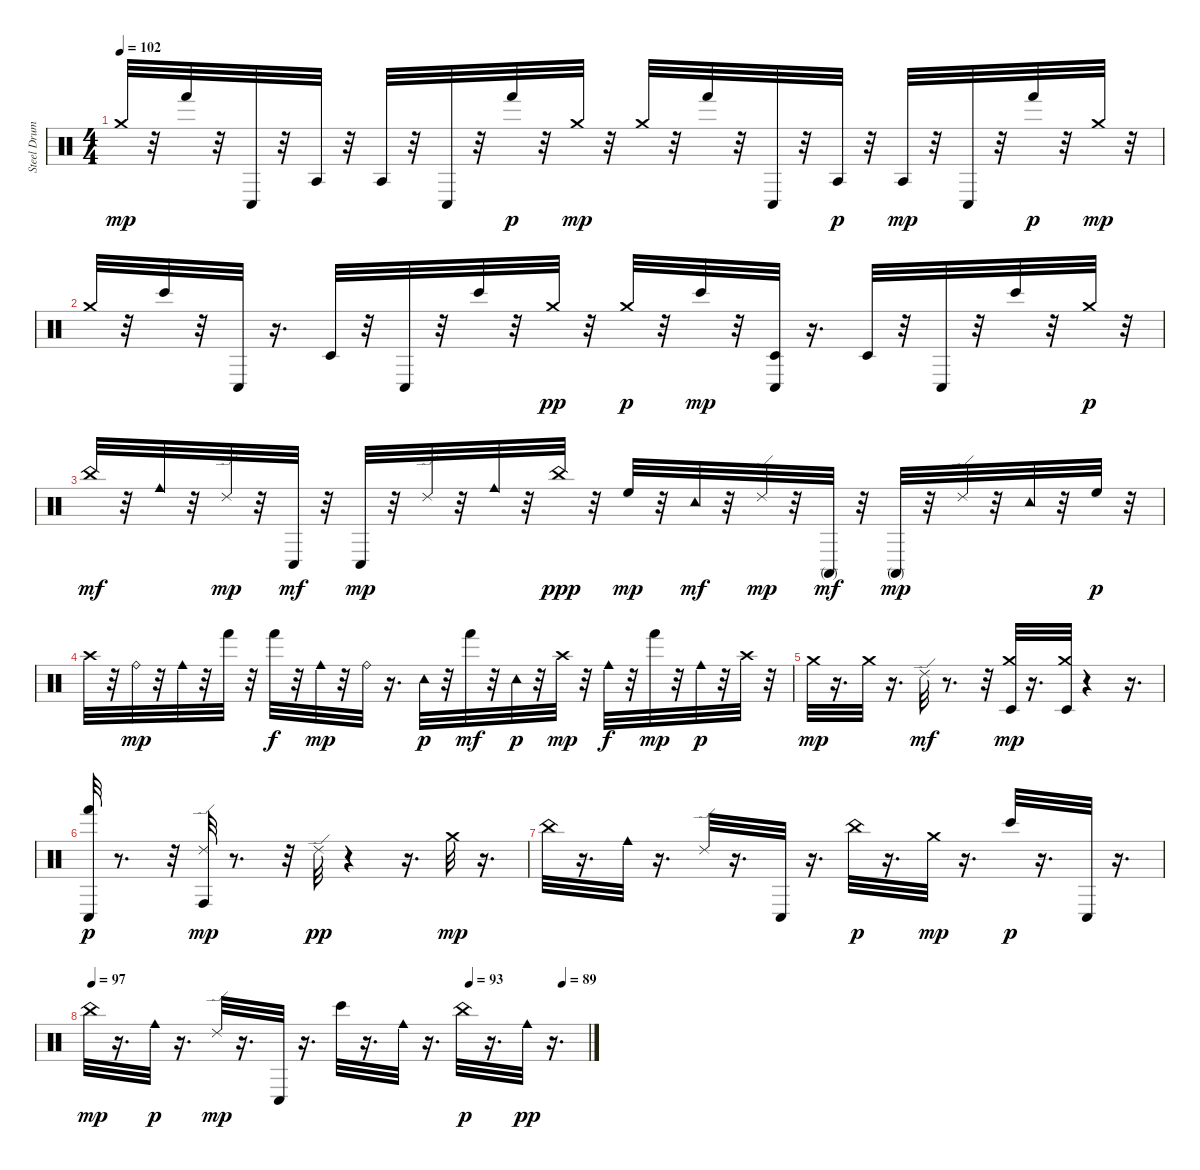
\track ("Steel Drums" "Steel Drum") {instrument percussion}
\staff {score}
\articulation defaults
\ts (4 4)
\tempo 102
\clef neutral
\ks c "Crash medium (hit)".32{dy mp}
r.32 "Hand (hit)".32 r.32 "Conga low (hit)".32 r.32 "Agogo tow (hit)".32 r.32 "Agogo tow (hit)".32 r.32 "Conga low (hit)".32 r.32 "Hand (hit)".32{dy p} r.32 "Crash medium (hit)".32{dy mp} r.32 "Crash medium (hit)".32 r.32 "Hand (hit)".32 r.32 "Conga low (hit)".32 r.32 "Agogo tow (hit)".32{dy p} r.32 "Agogo tow (hit)".32{dy mp} r.32 "Conga low (hit)".32 r.32 "Hand (hit)".32{dy p} r.32 "Crash medium (hit)".32{dy mp} r.32 |
"Crash medium (hit)".32 r.32 "Bongo High (hit)".32 r.32 "Conga low (hit)".32 r.16{d} "Timbale low (hit)".32 r.32 "Conga low (hit)".32 r.32 "Bongo High (hit)".32 r.32 "Crash medium (hit)".32{dy pp} r.32 "Crash medium (hit)".32{dy p} r.32 "Bongo High (hit)".32{dy mp} r.32 ("Timbale low (hit)" "Conga low (hit)").32 r.16{d} "Timbale low (hit)".32 r.32 "Conga low (hit)".32 r.32 "Bongo High (hit)".32 r.32 "Crash medium (hit)".32{dy p} r.32 |
"China (hit)".32{dy mf} r.32 "Cowbell medium (hit)".32 r.32 "Ride (edge) 2".32{dy mp} r.32 "Conga low (hit)".32{dy mf} r.32 "Conga low (hit)".32{dy mp} r.32 "Ride (edge) 2".32 r.32 "Cowbell medium (hit)".32 r.32 "China (hit)".32{dy ppp} r.32 "High Floor Tom (hit)".32{dy mp} r.32 "Tambourine (hit)".32{dy mf} r.32 "Ride (edge) 2".32{dy mp} r.32 "Conga high (mute)".32{dy mf} r.32 "Conga high (mute)".32{dy mp} r.32 "Ride (edge) 2".32 r.32 "Tambourine (hit)".32 r.32 "High Floor Tom (hit)".32{dy p} r.32 |
"Crash high (hit)".32 r.32 "Ride (bell)".32{dy mp} r.32 "Cowbell medium (hit)".32 r.32 "Hand (hit)".32 r.32 "Hand (hit)".32{dy f} r.32 "Cowbell medium (hit)".32{dy mp} r.32 "Ride (bell)".32 r.16{d} "Tambourine (hit)".32{dy p} r.32 "Hand (hit)".32{dy mf} r.32 "Tambourine (hit)".32{dy p} r.32 "Crash high (hit)".32{dy mp} r.32 "Cowbell medium (hit)".32{dy f} r.32 "Hand (hit)".32{dy mp} r.32 "Cowbell medium (hit)".32{dy p} r.32 "Crash high (hit)".32 r.32 |
"Crash medium (hit)".32{dy mp} r.16{d} "Crash medium (hit)".32 r.16{d} "Ride (edge) 2".32{dy mf} r.8{d} r.32 ("Timbale low (hit)" "Crash medium (hit)").32{dy mp} r.16{d} ("Timbale low (hit)" "Crash medium (hit)").32 r.4 r.16{d} |
("Conga low (hit)" "Hand (hit)").32{dy p} r.8{d} r.32 ("Conga high (hit)" "Ride (edge) 2").32{dy mp} r.8{d} r.32 "Ride (edge) 2".32{dy pp} r.4 r.16{d} "Crash medium (hit)".32{dy mp} r.16{d} |
"China (hit)".32 r.16{d} "Cowbell medium (hit)".32 r.16{d} "Ride (edge) 2".32 r.16{d} "Conga low (hit)".32 r.16{d} "China (hit)".32{dy p} r.16{d} "Crash medium (hit)".32{dy mp} r.16{d} "Bongo High (hit)".32{dy p} r.16{d} "Conga low (hit)".32 r.16{d} |
\tempo 97
\tempo (93 0.7604166666666666)
\tempo (89 0.9479166666666666)
"China (hit)".32{dy mp} r.16{d} "Cowbell medium (hit)".32{dy p} r.16{d} "Ride (edge) 2".32{dy mp} r.16{d} "Conga low (hit)".32 r.16{d} "Bongo High (hit)".32 r.16{d} "Cowbell medium (hit)".32 r.16{d} "China (hit)".32{dy p} r.16{d} "Cowbell medium (hit)".32{dy pp} r.16{d}
